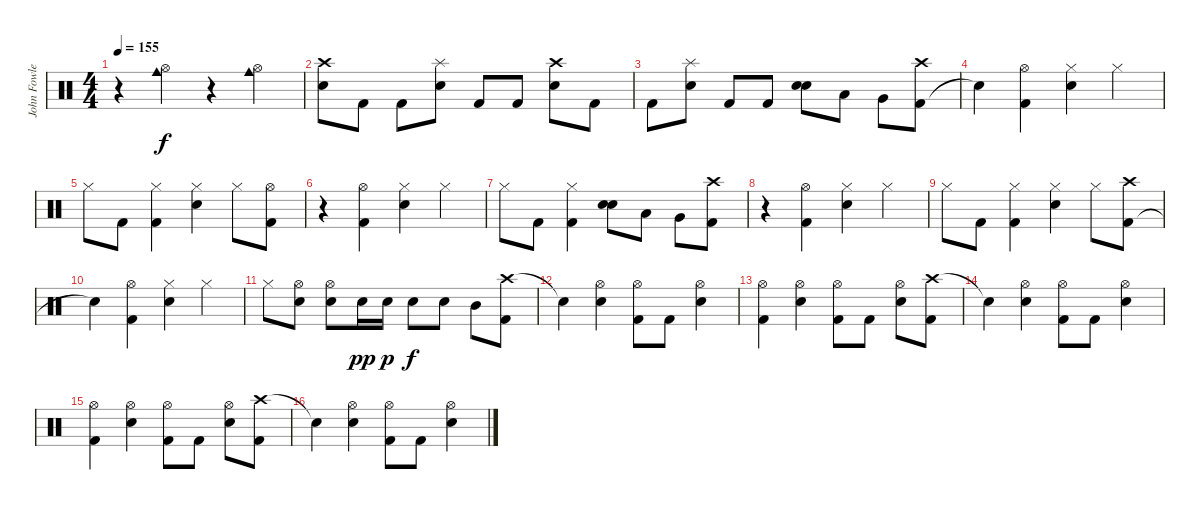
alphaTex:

\track ("John Fowler - Drums" "John Fowle") {instrument percussion}
\staff {score}
\articulation defaults
\ts (4 4)
\tempo 155
\clef neutral
\ks c
r.4{dy f} ("Cowbell medium (hit)" "Hi-Hat (open)").4 r.4 ("Cowbell medium (hit)" "Hi-Hat (open)").4 |
("Crash high (hit)" "Electric Snare (hit)").8 "Kick (hit) 2".8 "Kick (hit) 2".8 ("Splash (hit)" "Electric Snare (hit)").8 "Kick (hit) 2".8 "Kick (hit) 2".8 ("Crash high (hit)" "Electric Snare (hit)").8 "Kick (hit) 2".8 |
"Kick (hit) 2".8 ("Splash (hit)" "Electric Snare (hit)").8 "Kick (hit) 2".8 "Kick (hit) 2".8 ("Electric Snare (hit)" "Electric Snare (hit)").8{bd 60} "Low Tom (hit)".8 "Very Low Tom (hit)".8 ("Kick (hit) 2" "Crash high (hit)").8 |
"Snare (hit)"{t}.4 ("Hi-Hat (open)" "Kick (hit) 2").4 ("Hi-Hat (closed)" "Electric Snare (hit)").4 "Hi-Hat (closed)".4 |
"Hi-Hat (closed)".8 "Kick (hit) 2".8 ("Hi-Hat (closed)" "Kick (hit) 2").4 ("Electric Snare (hit)" "Hi-Hat (closed)").4 "Hi-Hat (closed)".8 ("Kick (hit) 2" "Hi-Hat (open)").8 |
r.4 ("Hi-Hat (open)" "Kick (hit) 2").4 ("Hi-Hat (closed)" "Electric Snare (hit)").4 "Hi-Hat (closed)".4 |
"Hi-Hat (closed)".8 "Kick (hit) 2".8 ("Hi-Hat (closed)" "Kick (hit) 2").4 ("Electric Snare (hit)" "Electric Snare (hit)").8{bd 60} "Low Tom (hit)".8 "Very Low Tom (hit)".8 ("Crash high (hit)" "Kick (hit) 2").8 |
r.4 ("Hi-Hat (open)" "Kick (hit) 2").4 ("Hi-Hat (closed)" "Electric Snare (hit)").4 "Hi-Hat (closed)".4 |
"Hi-Hat (closed)".8 "Kick (hit) 2".8 ("Hi-Hat (closed)" "Kick (hit) 2").4 ("Electric Snare (hit)" "Hi-Hat (closed)").4 "Hi-Hat (closed)".8 ("Kick (hit) 2" "Crash high (hit)").8 |
"Snare (hit)"{t}.4 ("Hi-Hat (open)" "Kick (hit) 2").4 ("Hi-Hat (closed)" "Electric Snare (hit)").4 "Hi-Hat (closed)".4 |
"Hi-Hat (closed)".8 ("Electric Snare (hit)" "Hi-Hat (open)").8 ("Electric Snare (hit)" "Hi-Hat (open)").8 "Electric Snare (hit)".16{dy pp} "Electric Snare (hit)".16{dy p} "Electric Snare (hit)".8{dy f} "Electric Snare (hit)".8 "Mid Tom (hit)".8 ("Crash high (hit)" "Kick (hit) 2").8 |
"Snare (hit)"{t}.4 ("Electric Snare (hit)" "Hi-Hat (open)").4 ("Kick (hit) 2" "Hi-Hat (open)").8 "Kick (hit) 2".8 ("Electric Snare (hit)" "Hi-Hat (open)").4 |
("Kick (hit) 2" "Hi-Hat (open)").4 ("Electric Snare (hit)" "Hi-Hat (open)").4 ("Kick (hit) 2" "Hi-Hat (open)").8 "Kick (hit) 2".8 ("Electric Snare (hit)" "Hi-Hat (open)").8 ("Crash high (hit)" "Kick (hit) 2").8 |
"Snare (hit)"{t}.4 ("Hi-Hat (open)" "Electric Snare (hit)").4 ("Hi-Hat (open)" "Kick (hit) 2").8 "Kick (hit) 2".8 ("Hi-Hat (open)" "Electric Snare (hit)").4 |
("Hi-Hat (open)" "Kick (hit) 2").4 ("Hi-Hat (open)" "Electric Snare (hit)").4 ("Hi-Hat (open)" "Kick (hit) 2").8 "Kick (hit) 2".8 ("Hi-Hat (open)" "Electric Snare (hit)").8 ("Crash high (hit)" "Kick (hit) 2").8 |
"Snare (hit)"{t}.4 ("Hi-Hat (open)" "Electric Snare (hit)").4 ("Hi-Hat (open)" "Kick (hit) 2").8 "Kick (hit) 2".8 ("Hi-Hat (open)" "Electric Snare (hit)").4
